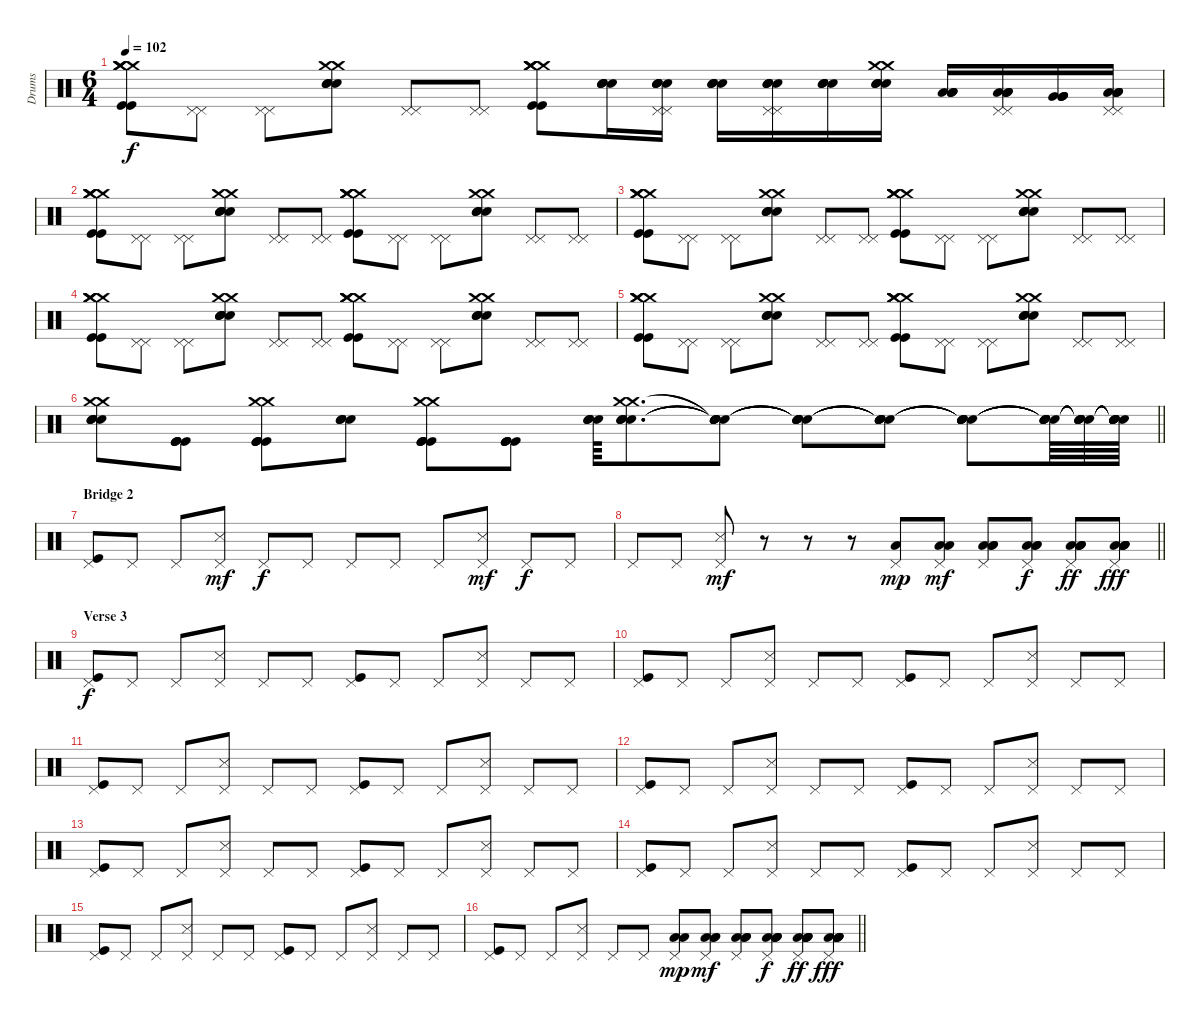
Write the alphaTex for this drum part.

\track ("Drums" "Drums") {instrument percussion}
\staff {score}
\articulation defaults
\ts (6 4)
\tempo 102
\clef neutral
\ks c
("Crash medium (hit)" "Crash medium (hit)" "Crash medium (hit)" "Crash medium (hit)" "Kick (hit)" "Kick (hit)").8{dy f} ("Pedal Hi-Hat (hit)" "Pedal Hi-Hat (hit)").8 ("Pedal Hi-Hat (hit)" "Pedal Hi-Hat (hit)").8 ("Crash medium (hit)" "Crash medium (hit)" "Electric Snare (hit)" "Electric Snare (hit)" "Electric Snare (hit)" "Electric Snare (hit)").8 ("Pedal Hi-Hat (hit)" "Pedal Hi-Hat (hit)").8 ("Pedal Hi-Hat (hit)" "Pedal Hi-Hat (hit)").8 ("Crash medium (hit)" "Crash medium (hit)" "Crash medium (hit)" "Crash medium (hit)" "Kick (hit)" "Kick (hit)").8 ("Electric Snare (hit)" "Electric Snare (hit)" "Electric Snare (hit)" "Electric Snare (hit)").16 ("Pedal Hi-Hat (hit)" "Pedal Hi-Hat (hit)" "Electric Snare (hit)" "Electric Snare (hit)" "Electric Snare (hit)" "Electric Snare (hit)").16 ("Electric Snare (hit)" "Electric Snare (hit)" "Electric Snare (hit)" "Electric Snare (hit)").16 ("Pedal Hi-Hat (hit)" "Pedal Hi-Hat (hit)" "Electric Snare (hit)" "Electric Snare (hit)" "Electric Snare (hit)" "Electric Snare (hit)").16 ("Electric Snare (hit)" "Electric Snare (hit)" "Electric Snare (hit)" "Electric Snare (hit)").16 ("Crash medium (hit)" "Crash medium (hit)" "Electric Snare (hit)" "Electric Snare (hit)" "Electric Snare (hit)" "Electric Snare (hit)").16 ("Low Tom (hit)" "Low Tom (hit)" "Low Tom (hit)" "Low Tom (hit)").16 ("Pedal Hi-Hat (hit)" "Pedal Hi-Hat (hit)" "Low Tom (hit)" "Low Tom (hit)" "Low Tom (hit)" "Low Tom (hit)").16 ("Very Low Tom (hit)" "Very Low Tom (hit)" "Very Low Tom (hit)" "Very Low Tom (hit)").16 ("Pedal Hi-Hat (hit)" "Pedal Hi-Hat (hit)" "Low Floor Tom (hit)" "Low Floor Tom (hit)" "Low Floor Tom (hit)" "Low Floor Tom (hit)").16 |
("Crash medium (hit)" "Crash medium (hit)" "Crash medium (hit)" "Crash medium (hit)" "Kick (hit)" "Kick (hit)").8 ("Pedal Hi-Hat (hit)" "Pedal Hi-Hat (hit)").8 ("Pedal Hi-Hat (hit)" "Pedal Hi-Hat (hit)").8 ("Crash medium (hit)" "Crash medium (hit)" "Electric Snare (hit)" "Electric Snare (hit)" "Electric Snare (hit)" "Electric Snare (hit)").8 ("Pedal Hi-Hat (hit)" "Pedal Hi-Hat (hit)").8 ("Pedal Hi-Hat (hit)" "Pedal Hi-Hat (hit)").8 ("Crash medium (hit)" "Crash medium (hit)" "Crash medium (hit)" "Crash medium (hit)" "Kick (hit)" "Kick (hit)").8 ("Pedal Hi-Hat (hit)" "Pedal Hi-Hat (hit)").8 ("Pedal Hi-Hat (hit)" "Pedal Hi-Hat (hit)").8 ("Crash medium (hit)" "Crash medium (hit)" "Electric Snare (hit)" "Electric Snare (hit)" "Electric Snare (hit)" "Electric Snare (hit)").8 ("Pedal Hi-Hat (hit)" "Pedal Hi-Hat (hit)").8 ("Pedal Hi-Hat (hit)" "Pedal Hi-Hat (hit)").8 |
("Crash medium (hit)" "Crash medium (hit)" "Crash medium (hit)" "Crash medium (hit)" "Kick (hit)" "Kick (hit)").8 ("Pedal Hi-Hat (hit)" "Pedal Hi-Hat (hit)").8 ("Pedal Hi-Hat (hit)" "Pedal Hi-Hat (hit)").8 ("Crash medium (hit)" "Crash medium (hit)" "Electric Snare (hit)" "Electric Snare (hit)" "Electric Snare (hit)" "Electric Snare (hit)").8 ("Pedal Hi-Hat (hit)" "Pedal Hi-Hat (hit)").8 ("Pedal Hi-Hat (hit)" "Pedal Hi-Hat (hit)").8 ("Crash medium (hit)" "Crash medium (hit)" "Crash medium (hit)" "Crash medium (hit)" "Kick (hit)" "Kick (hit)").8 ("Pedal Hi-Hat (hit)" "Pedal Hi-Hat (hit)").8 ("Pedal Hi-Hat (hit)" "Pedal Hi-Hat (hit)").8 ("Crash medium (hit)" "Crash medium (hit)" "Electric Snare (hit)" "Electric Snare (hit)" "Electric Snare (hit)" "Electric Snare (hit)").8 ("Pedal Hi-Hat (hit)" "Pedal Hi-Hat (hit)").8 ("Pedal Hi-Hat (hit)" "Pedal Hi-Hat (hit)").8 |
("Crash medium (hit)" "Crash medium (hit)" "Crash medium (hit)" "Crash medium (hit)" "Kick (hit)" "Kick (hit)").8 ("Pedal Hi-Hat (hit)" "Pedal Hi-Hat (hit)").8 ("Pedal Hi-Hat (hit)" "Pedal Hi-Hat (hit)").8 ("Crash medium (hit)" "Crash medium (hit)" "Electric Snare (hit)" "Electric Snare (hit)" "Electric Snare (hit)" "Electric Snare (hit)").8 ("Pedal Hi-Hat (hit)" "Pedal Hi-Hat (hit)").8 ("Pedal Hi-Hat (hit)" "Pedal Hi-Hat (hit)").8 ("Crash medium (hit)" "Crash medium (hit)" "Crash medium (hit)" "Crash medium (hit)" "Kick (hit)" "Kick (hit)").8 ("Pedal Hi-Hat (hit)" "Pedal Hi-Hat (hit)").8 ("Pedal Hi-Hat (hit)" "Pedal Hi-Hat (hit)").8 ("Crash medium (hit)" "Crash medium (hit)" "Electric Snare (hit)" "Electric Snare (hit)" "Electric Snare (hit)" "Electric Snare (hit)").8 ("Pedal Hi-Hat (hit)" "Pedal Hi-Hat (hit)").8 ("Pedal Hi-Hat (hit)" "Pedal Hi-Hat (hit)").8 |
("Crash medium (hit)" "Crash medium (hit)" "Crash medium (hit)" "Crash medium (hit)" "Kick (hit)" "Kick (hit)").8 ("Pedal Hi-Hat (hit)" "Pedal Hi-Hat (hit)").8 ("Pedal Hi-Hat (hit)" "Pedal Hi-Hat (hit)").8 ("Crash medium (hit)" "Crash medium (hit)" "Electric Snare (hit)" "Electric Snare (hit)" "Electric Snare (hit)" "Electric Snare (hit)").8 ("Pedal Hi-Hat (hit)" "Pedal Hi-Hat (hit)").8 ("Pedal Hi-Hat (hit)" "Pedal Hi-Hat (hit)").8 ("Crash medium (hit)" "Crash medium (hit)" "Crash medium (hit)" "Crash medium (hit)" "Kick (hit)" "Kick (hit)").8 ("Pedal Hi-Hat (hit)" "Pedal Hi-Hat (hit)").8 ("Pedal Hi-Hat (hit)" "Pedal Hi-Hat (hit)").8 ("Crash medium (hit)" "Crash medium (hit)" "Electric Snare (hit)" "Electric Snare (hit)" "Electric Snare (hit)" "Electric Snare (hit)").8 ("Pedal Hi-Hat (hit)" "Pedal Hi-Hat (hit)").8 ("Pedal Hi-Hat (hit)" "Pedal Hi-Hat (hit)").8 |
\barLineRight lightlight
("Crash medium (hit)" "Crash medium (hit)" "Electric Snare (hit)" "Electric Snare (hit)" "Electric Snare (hit)" "Electric Snare (hit)").8 ("Kick (hit)" "Kick (hit)" "Kick (hit)" "Kick (hit)").8 ("Crash medium (hit)" "Crash medium (hit)" "Kick (hit)" "Kick (hit)" "Kick (hit)" "Kick (hit)").8 ("Electric Snare (hit)" "Electric Snare (hit)" "Electric Snare (hit)" "Electric Snare (hit)").8 ("Crash medium (hit)" "Crash medium (hit)" "Kick (hit)" "Kick (hit)" "Kick (hit)" "Kick (hit)").8 ("Kick (hit)" "Kick (hit)" "Kick (hit)" "Kick (hit)").8 ("Electric Snare (hit)" "Electric Snare (hit)" "Electric Snare (hit)" "Electric Snare (hit)").64 ("Crash medium (hit)" "Crash medium (hit)" "Electric Snare (hit)" "Electric Snare (hit)" "Electric Snare (hit)" "Electric Snare (hit)").8{d} ("Snare (hit)"{t} "Snare (hit)"{t} "Snare (hit)"{t} "Snare (hit)"{t} "Snare (hit)"{t} "Snare (hit)"{t}).8 ("Snare (hit)"{t} "Snare (hit)"{t} "Snare (hit)"{t} "Snare (hit)"{t} "Snare (hit)"{t} "Snare (hit)"{t}).8 ("Snare (hit)"{t} "Snare (hit)"{t} "Snare (hit)"{t} "Snare (hit)"{t} "Snare (hit)"{t} "Snare (hit)"{t}).8 ("Snare (hit)"{t} "Snare (hit)"{t} "Snare (hit)"{t} "Snare (hit)"{t} "Snare (hit)"{t} "Snare (hit)"{t}).8 ("Snare (hit)"{t} "Snare (hit)"{t} "Snare (hit)"{t} "Snare (hit)"{t} "Snare (hit)"{t} "Snare (hit)"{t}).64 ("Snare (hit)"{t} "Snare (hit)"{t} "Snare (hit)"{t} "Snare (hit)"{t} "Snare (hit)"{t} "Snare (hit)"{t}).64 ("Snare (hit)"{t} "Snare (hit)"{t} "Snare (hit)"{t} "Snare (hit)"{t} "Snare (hit)"{t} "Snare (hit)"{t}).64 |
\section ("" "Bridge 2")
("Pedal Hi-Hat (hit)" "Kick (hit)").8 "Pedal Hi-Hat (hit)".8 "Pedal Hi-Hat (hit)".8 ("Pedal Hi-Hat (hit)" "Snare (side stick) 3").8{dy mf} "Pedal Hi-Hat (hit)".8{dy f} "Pedal Hi-Hat (hit)".8 "Pedal Hi-Hat (hit)".8 "Pedal Hi-Hat (hit)".8 "Pedal Hi-Hat (hit)".8 ("Pedal Hi-Hat (hit)" "Snare (side stick) 3").8{dy mf} "Pedal Hi-Hat (hit)".8{dy f} "Pedal Hi-Hat (hit)".8 |
\barLineRight lightlight "Pedal Hi-Hat (hit)".8 "Pedal Hi-Hat (hit)".8
("Pedal Hi-Hat (hit)" "Snare (side stick) 3").8{dy mf} r.8 r.8 r.8 ("Pedal Hi-Hat (hit)" "Low Tom (hit)").8{dy mp} ("Pedal Hi-Hat (hit)" "Low Tom (hit)" "Low Tom (hit)").8{dy mf} ("Pedal Hi-Hat (hit)" "Low Tom (hit)" "Low Tom (hit)" "Low Tom (hit)").8 ("Pedal Hi-Hat (hit)" "Low Tom (hit)" "Low Tom (hit)" "Low Tom (hit)").8{dy f} ("Pedal Hi-Hat (hit)" "Low Tom (hit)" "Low Tom (hit)" "Low Tom (hit)" "Low Tom (hit)").8{dy ff} ("Pedal Hi-Hat (hit)" "Low Tom (hit)" "Low Tom (hit)" "Low Tom (hit)" "Low Tom (hit)" "Low Tom (hit)").8{dy fff} |
\section ("" "Verse 3")
("Pedal Hi-Hat (hit)" "Kick (hit)").8{dy f} "Pedal Hi-Hat (hit)".8 "Pedal Hi-Hat (hit)".8 ("Pedal Hi-Hat (hit)" "Snare (side stick) 3").8 "Pedal Hi-Hat (hit)".8 "Pedal Hi-Hat (hit)".8 ("Pedal Hi-Hat (hit)" "Kick (hit)").8 "Pedal Hi-Hat (hit)".8 "Pedal Hi-Hat (hit)".8 ("Pedal Hi-Hat (hit)" "Snare (side stick) 3").8 "Pedal Hi-Hat (hit)".8 "Pedal Hi-Hat (hit)".8 |
("Pedal Hi-Hat (hit)" "Kick (hit)").8 "Pedal Hi-Hat (hit)".8 "Pedal Hi-Hat (hit)".8 ("Pedal Hi-Hat (hit)" "Snare (side stick) 3").8 "Pedal Hi-Hat (hit)".8 "Pedal Hi-Hat (hit)".8 ("Pedal Hi-Hat (hit)" "Kick (hit)").8 "Pedal Hi-Hat (hit)".8 "Pedal Hi-Hat (hit)".8 ("Pedal Hi-Hat (hit)" "Snare (side stick) 3").8 "Pedal Hi-Hat (hit)".8 "Pedal Hi-Hat (hit)".8 |
("Pedal Hi-Hat (hit)" "Kick (hit)").8 "Pedal Hi-Hat (hit)".8 "Pedal Hi-Hat (hit)".8 ("Pedal Hi-Hat (hit)" "Snare (side stick) 3").8 "Pedal Hi-Hat (hit)".8 "Pedal Hi-Hat (hit)".8 ("Pedal Hi-Hat (hit)" "Kick (hit)").8 "Pedal Hi-Hat (hit)".8 "Pedal Hi-Hat (hit)".8 ("Pedal Hi-Hat (hit)" "Snare (side stick) 3").8 "Pedal Hi-Hat (hit)".8 "Pedal Hi-Hat (hit)".8 |
("Pedal Hi-Hat (hit)" "Kick (hit)").8 "Pedal Hi-Hat (hit)".8 "Pedal Hi-Hat (hit)".8 ("Pedal Hi-Hat (hit)" "Snare (side stick) 3").8 "Pedal Hi-Hat (hit)".8 "Pedal Hi-Hat (hit)".8 ("Pedal Hi-Hat (hit)" "Kick (hit)").8 "Pedal Hi-Hat (hit)".8 "Pedal Hi-Hat (hit)".8 ("Pedal Hi-Hat (hit)" "Snare (side stick) 3").8 "Pedal Hi-Hat (hit)".8 "Pedal Hi-Hat (hit)".8 |
("Pedal Hi-Hat (hit)" "Kick (hit)").8 "Pedal Hi-Hat (hit)".8 "Pedal Hi-Hat (hit)".8 ("Pedal Hi-Hat (hit)" "Snare (side stick) 3").8 "Pedal Hi-Hat (hit)".8 "Pedal Hi-Hat (hit)".8 ("Pedal Hi-Hat (hit)" "Kick (hit)").8 "Pedal Hi-Hat (hit)".8 "Pedal Hi-Hat (hit)".8 ("Pedal Hi-Hat (hit)" "Snare (side stick) 3").8 "Pedal Hi-Hat (hit)".8 "Pedal Hi-Hat (hit)".8 |
("Pedal Hi-Hat (hit)" "Kick (hit)").8 "Pedal Hi-Hat (hit)".8 "Pedal Hi-Hat (hit)".8 ("Pedal Hi-Hat (hit)" "Snare (side stick) 3").8 "Pedal Hi-Hat (hit)".8 "Pedal Hi-Hat (hit)".8 ("Pedal Hi-Hat (hit)" "Kick (hit)").8 "Pedal Hi-Hat (hit)".8 "Pedal Hi-Hat (hit)".8 ("Pedal Hi-Hat (hit)" "Snare (side stick) 3").8 "Pedal Hi-Hat (hit)".8 "Pedal Hi-Hat (hit)".8 |
("Pedal Hi-Hat (hit)" "Kick (hit)").8 "Pedal Hi-Hat (hit)".8 "Pedal Hi-Hat (hit)".8 ("Pedal Hi-Hat (hit)" "Snare (side stick) 3").8 "Pedal Hi-Hat (hit)".8 "Pedal Hi-Hat (hit)".8 ("Pedal Hi-Hat (hit)" "Kick (hit)").8 "Pedal Hi-Hat (hit)".8 "Pedal Hi-Hat (hit)".8 ("Pedal Hi-Hat (hit)" "Snare (side stick) 3").8 "Pedal Hi-Hat (hit)".8 "Pedal Hi-Hat (hit)".8 |
\barLineRight lightlight
("Pedal Hi-Hat (hit)" "Kick (hit)").8 "Pedal Hi-Hat (hit)".8 "Pedal Hi-Hat (hit)".8 ("Pedal Hi-Hat (hit)" "Snare (side stick) 3").8 "Pedal Hi-Hat (hit)".8 "Pedal Hi-Hat (hit)".8 ("Pedal Hi-Hat (hit)" "Low Tom (hit)" "Low Tom (hit)").8{dy mp} ("Pedal Hi-Hat (hit)" "Low Tom (hit)" "Low Tom (hit)" "Low Tom (hit)").8{dy mf} ("Pedal Hi-Hat (hit)" "Low Tom (hit)" "Low Tom (hit)" "Low Tom (hit)").8 ("Pedal Hi-Hat (hit)" "Low Tom (hit)" "Low Tom (hit)" "Low Tom (hit)" "Low Tom (hit)").8{dy f} ("Pedal Hi-Hat (hit)" "Low Tom (hit)" "Low Tom (hit)" "Low Tom (hit)" "Low Tom (hit)" "Low Tom (hit)").8{dy ff} ("Pedal Hi-Hat (hit)" "Low Tom (hit)" "Low Tom (hit)" "Low Tom (hit)" "Low Tom (hit)" "Low Tom (hit)").8{dy fff}
